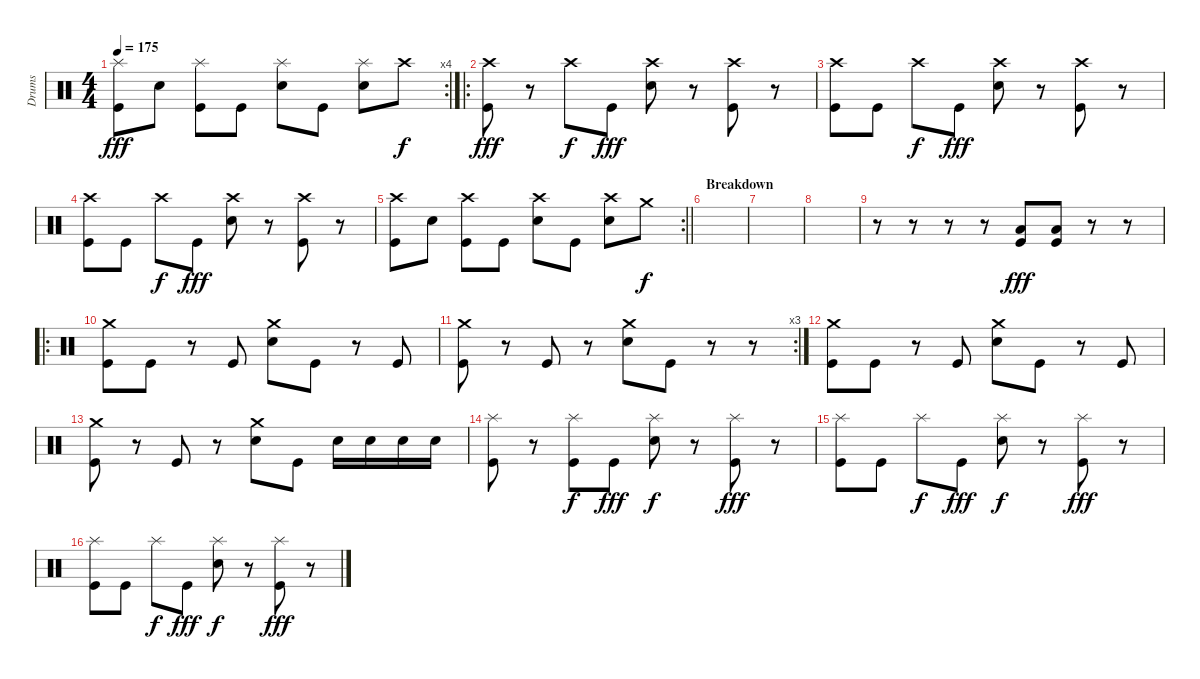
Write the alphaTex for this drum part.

\track ("Drums" "Drums") {instrument percussion}
\staff {score}
\articulation defaults
\rc 4
\ts (4 4)
\tempo 175
\clef neutral
\ks c
("Splash (hit)" "Kick (hit)").8{dy fff} "Electric Snare (hit)".8 ("Splash (hit)" "Kick (hit)").8 "Kick (hit)".8 ("Splash (hit)" "Electric Snare (hit)").8 "Kick (hit)".8 ("Splash (hit)" "Electric Snare (hit)").8 "Crash high (hit)".8{dy f} |
\ro
("Crash high (hit)" "Kick (hit)").8{dy fff} r.8 "Crash high (hit)".8{dy f} "Kick (hit)".8{dy fff} ("Crash high (hit)" "Electric Snare (hit)").8 r.8 ("Crash high (hit)" "Kick (hit)").8 r.8 |
("Crash high (hit)" "Kick (hit)").8 "Kick (hit)".8 "Crash high (hit)".8{dy f} "Kick (hit)".8{dy fff} ("Crash high (hit)" "Electric Snare (hit)").8 r.8 ("Crash high (hit)" "Kick (hit)").8 r.8 |
("Crash high (hit)" "Kick (hit)").8 "Kick (hit)".8 "Crash high (hit)".8{dy f} "Kick (hit)".8{dy fff} ("Crash high (hit)" "Electric Snare (hit)").8 r.8 ("Crash high (hit)" "Kick (hit)").8 r.8 |
\rc 2
\barLineRight lightlight
("Crash high (hit)" "Kick (hit)").8 "Electric Snare (hit)".8 ("Crash high (hit)" "Kick (hit)").8 "Kick (hit)".8 ("Crash high (hit)" "Electric Snare (hit)").8 "Kick (hit)".8 ("Crash high (hit)" "Electric Snare (hit)").8 "Crash medium (hit)".8{dy f} |
\section ("" "Breakdown")
|
|
|
r.8 r.8 r.8 r.8 ("Low Floor Tom (hit)" "Kick (hit)").8{dy fff} ("Low Floor Tom (hit)" "Kick (hit)").8 r.8 r.8 |
\ro
("Crash medium (hit)" "Kick (hit)").8 "Kick (hit)".8 r.8 "Kick (hit)".8 ("Crash medium (hit)" "Electric Snare (hit)").8 "Kick (hit)".8 r.8 "Kick (hit)".8 |
\rc 3
("Crash medium (hit)" "Kick (hit)").8 r.8 "Kick (hit)".8 r.8 ("Crash medium (hit)" "Electric Snare (hit)").8 "Kick (hit)".8 r.8 r.8 |
("Crash medium (hit)" "Kick (hit)").8 "Kick (hit)".8 r.8 "Kick (hit)".8 ("Crash medium (hit)" "Electric Snare (hit)").8 "Kick (hit)".8 r.8 "Kick (hit)".8 |
("Crash medium (hit)" "Kick (hit)").8 r.8 "Kick (hit)".8 r.8 ("Crash medium (hit)" "Electric Snare (hit)").8 "Kick (hit)".8 "Electric Snare (hit)".16 "Electric Snare (hit)".16 "Electric Snare (hit)".16 "Electric Snare (hit)".16 |
("Splash (hit)" "Kick (hit)").8 r.8 ("Splash (hit)" "Kick (hit)").8{dy f} "Kick (hit)".8{dy fff} ("Splash (hit)" "Electric Snare (hit)").8{dy f} r.8 ("Splash (hit)" "Kick (hit)").8{dy fff} r.8 |
("Splash (hit)" "Kick (hit)").8 "Kick (hit)".8 "Splash (hit)".8{dy f} "Kick (hit)".8{dy fff} ("Splash (hit)" "Electric Snare (hit)").8{dy f} r.8 ("Splash (hit)" "Kick (hit)").8{dy fff} r.8 |
("Splash (hit)" "Kick (hit)").8 "Kick (hit)".8 "Splash (hit)".8{dy f} "Kick (hit)".8{dy fff} ("Splash (hit)" "Electric Snare (hit)").8{dy f} r.8 ("Splash (hit)" "Kick (hit)").8{dy fff} r.8
